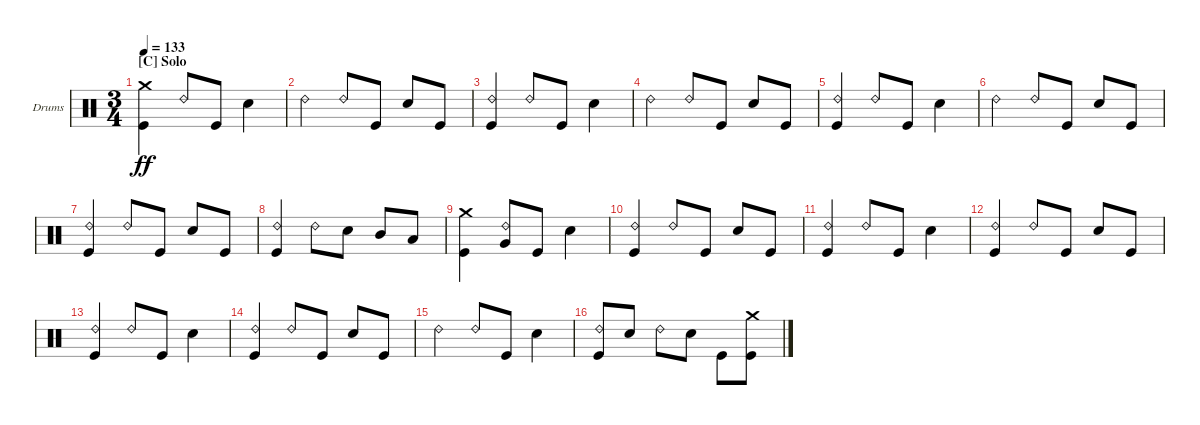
\bracketExtendMode groupsimilarinstruments
\firstSystemTrackNameOrientation horizontal
\otherSystemsTrackNameOrientation horizontal
\track ("Drumkit" "Drums") {instrument percussion}
\staff {score}
\articulation defaults
\ts (3 4)
\section ("C" "Solo")
\tempo 133
\clef neutral
\ks c
("Kick (hit)" "Crash medium (hit)").4{dy ff} "Ride (bell) 2".8 "Kick (hit)".8 "Snare (hit) 2".4 |
"Ride (bell) 2".4 "Ride (bell) 2".8 "Kick (hit)".8 "Snare (hit) 2".8 "Kick (hit)".8 |
("Ride (bell) 2" "Kick (hit)").4 "Ride (bell) 2".8 "Kick (hit)".8 "Snare (hit) 2".4 |
"Ride (bell) 2".4 "Ride (bell) 2".8 "Kick (hit)".8 "Snare (hit) 2".8 "Kick (hit)".8 |
("Ride (bell) 2" "Kick (hit)").4 "Ride (bell) 2".8 "Kick (hit)".8 "Snare (hit) 2".4 |
"Ride (bell) 2".4 "Ride (bell) 2".8 "Kick (hit)".8 "Snare (hit) 2".8 "Kick (hit)".8 |
("Ride (bell) 2" "Kick (hit)").4 "Ride (bell) 2".8 "Kick (hit)".8 "Snare (hit) 2".8 "Kick (hit)".8 |
("Ride (bell) 2" "Kick (hit)").4 "Ride (bell) 2".8 "Snare (hit) 2".8 "Mid Tom (hit)".8 "Low Tom (hit)".8 |
("Crash medium (hit)" "Kick (hit)").4 ("Ride (bell) 2" "Very Low Tom (hit)").8 "Kick (hit)".8 "Snare (hit) 2".4 |
("Ride (bell) 2" "Kick (hit)").4 "Ride (bell) 2".8 "Kick (hit)".8 "Snare (hit) 2".8 "Kick (hit)".8 |
("Ride (bell) 2" "Kick (hit)").4 "Ride (bell) 2".8 "Kick (hit)".8 "Snare (hit) 2".4 |
("Ride (bell) 2" "Kick (hit)").4 "Ride (bell) 2".8 "Kick (hit)".8 "Snare (hit) 2".8 "Kick (hit)".8 |
("Ride (bell) 2" "Kick (hit)").4 "Ride (bell) 2".8 "Kick (hit)".8 "Snare (hit) 2".4 |
("Ride (bell) 2" "Kick (hit)").4 "Ride (bell) 2".8 "Kick (hit)".8 "Snare (hit) 2".8 "Kick (hit)".8 |
"Ride (bell) 2".4 "Ride (bell) 2".8 "Kick (hit)".8 "Snare (hit) 2".4 |
("Kick (hit)" "Ride (bell) 2").8 "Snare (hit) 2".8 "Ride (bell) 2".8 "Snare (hit) 2".8 "Kick (hit)".8 ("Kick (hit)" "Crash medium (hit)").8
